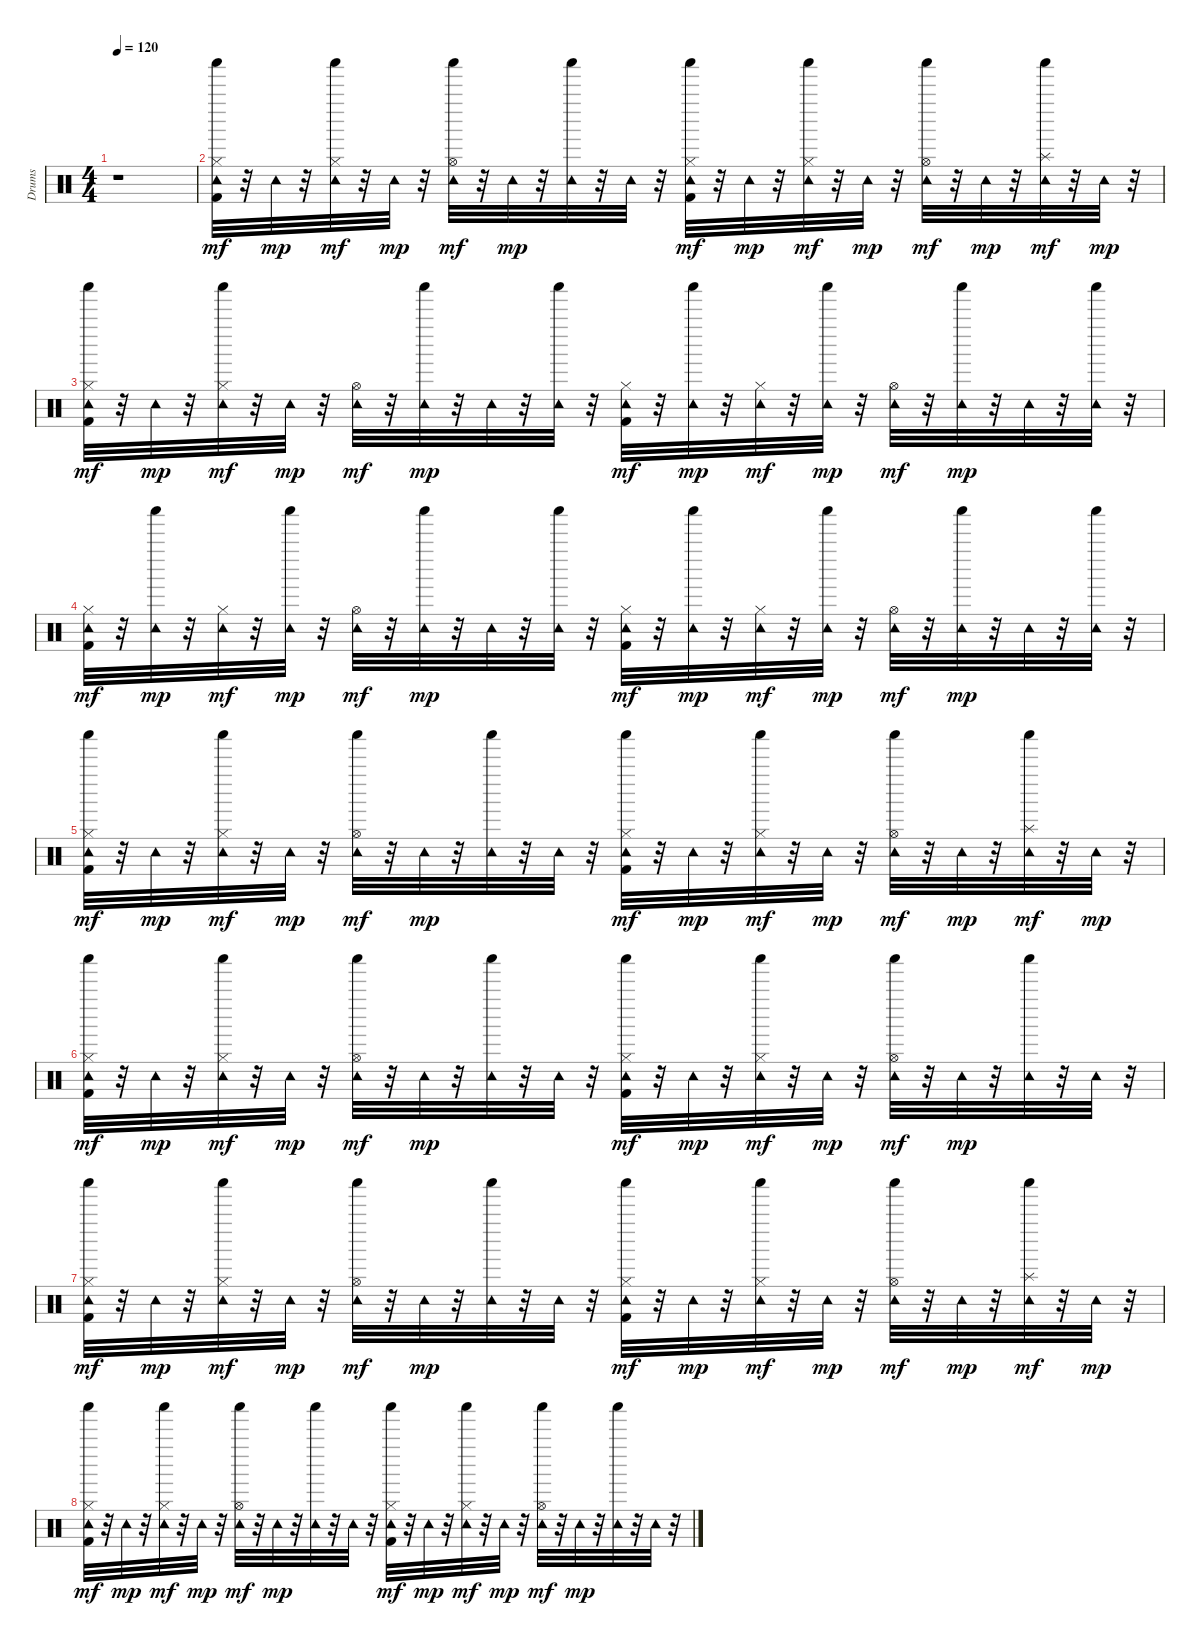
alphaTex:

\track ("Drums" "Drums") {instrument percussion}
\staff {score}
\articulation defaults
\ts (4 4)
\tempo 120
\clef neutral
\ks c
r.1{dy mp} |
("Kick (hit) 2" "Tambourine (hit)" "Shaker (hit)" "Hi-Hat (closed)").32{dy mf} r.32 "Tambourine (hit)".32{dy mp} r.32 ("Tambourine (hit)" "Shaker (hit)" "Hi-Hat (closed)").32{dy mf} r.32 "Tambourine (hit)".32{dy mp} r.32 ("Tambourine (hit)" "Shaker (hit)" "Hi-Hat (open)").32{dy mf} r.32 "Tambourine (hit)".32{dy mp} r.32 ("Tambourine (hit)" "Shaker (hit)").32 r.32 "Tambourine (hit)".32 r.32 ("Kick (hit) 2" "Tambourine (hit)" "Shaker (hit)" "Hi-Hat (closed)").32{dy mf} r.32 "Tambourine (hit)".32{dy mp} r.32 ("Tambourine (hit)" "Shaker (hit)" "Hi-Hat (closed)").32{dy mf} r.32 "Tambourine (hit)".32{dy mp} r.32 ("Tambourine (hit)" "Shaker (hit)" "Hi-Hat (open)").32{dy mf} r.32 "Tambourine (hit)".32{dy mp} r.32 ("Tambourine (hit)" "Shaker (hit)" "Splash (hit)").32{dy mf} r.32 "Tambourine (hit)".32{dy mp} r.32 |
("Kick (hit) 2" "Tambourine (hit)" "Shaker (hit)" "Hi-Hat (closed)").32{dy mf} r.32 "Tambourine (hit)".32{dy mp} r.32 ("Tambourine (hit)" "Shaker (hit)" "Hi-Hat (closed)").32{dy mf} r.32 "Tambourine (hit)".32{dy mp} r.32 ("Tambourine (hit)" "Hi-Hat (open)").32{dy mf} r.32 ("Tambourine (hit)" "Shaker (hit)").32{dy mp} r.32 "Tambourine (hit)".32 r.32 ("Tambourine (hit)" "Shaker (hit)").32 r.32 ("Kick (hit) 2" "Tambourine (hit)" "Hi-Hat (closed)").32{dy mf} r.32 ("Tambourine (hit)" "Shaker (hit)").32{dy mp} r.32 ("Tambourine (hit)" "Hi-Hat (closed)").32{dy mf} r.32 ("Tambourine (hit)" "Shaker (hit)").32{dy mp} r.32 ("Tambourine (hit)" "Hi-Hat (open)").32{dy mf} r.32 ("Tambourine (hit)" "Shaker (hit)").32{dy mp} r.32 "Tambourine (hit)".32 r.32 ("Tambourine (hit)" "Shaker (hit)").32 r.32 |
("Kick (hit) 2" "Tambourine (hit)" "Hi-Hat (closed)").32{dy mf} r.32 ("Tambourine (hit)" "Shaker (hit)").32{dy mp} r.32 ("Tambourine (hit)" "Hi-Hat (closed)").32{dy mf} r.32 ("Tambourine (hit)" "Shaker (hit)").32{dy mp} r.32 ("Tambourine (hit)" "Hi-Hat (open)").32{dy mf} r.32 ("Tambourine (hit)" "Shaker (hit)").32{dy mp} r.32 "Tambourine (hit)".32 r.32 ("Tambourine (hit)" "Shaker (hit)").32 r.32 ("Kick (hit) 2" "Tambourine (hit)" "Hi-Hat (closed)").32{dy mf} r.32 ("Tambourine (hit)" "Shaker (hit)").32{dy mp} r.32 ("Tambourine (hit)" "Hi-Hat (closed)").32{dy mf} r.32 ("Tambourine (hit)" "Shaker (hit)").32{dy mp} r.32 ("Tambourine (hit)" "Hi-Hat (open)").32{dy mf} r.32 ("Tambourine (hit)" "Shaker (hit)").32{dy mp} r.32 "Tambourine (hit)".32 r.32 ("Tambourine (hit)" "Shaker (hit)").32 r.32 |
("Kick (hit) 2" "Tambourine (hit)" "Shaker (hit)" "Hi-Hat (closed)").32{dy mf} r.32 "Tambourine (hit)".32{dy mp} r.32 ("Tambourine (hit)" "Shaker (hit)" "Hi-Hat (closed)").32{dy mf} r.32 "Tambourine (hit)".32{dy mp} r.32 ("Tambourine (hit)" "Shaker (hit)" "Hi-Hat (open)").32{dy mf} r.32 "Tambourine (hit)".32{dy mp} r.32 ("Tambourine (hit)" "Shaker (hit)").32 r.32 "Tambourine (hit)".32 r.32 ("Kick (hit) 2" "Tambourine (hit)" "Shaker (hit)" "Hi-Hat (closed)").32{dy mf} r.32 "Tambourine (hit)".32{dy mp} r.32 ("Tambourine (hit)" "Shaker (hit)" "Hi-Hat (closed)").32{dy mf} r.32 "Tambourine (hit)".32{dy mp} r.32 ("Tambourine (hit)" "Shaker (hit)" "Hi-Hat (open)").32{dy mf} r.32 "Tambourine (hit)".32{dy mp} r.32 ("Tambourine (hit)" "Shaker (hit)" "Splash (hit)").32{dy mf} r.32 "Tambourine (hit)".32{dy mp} r.32 |
("Kick (hit) 2" "Tambourine (hit)" "Shaker (hit)" "Hi-Hat (closed)").32{dy mf} r.32 "Tambourine (hit)".32{dy mp} r.32 ("Tambourine (hit)" "Shaker (hit)" "Hi-Hat (closed)").32{dy mf} r.32 "Tambourine (hit)".32{dy mp} r.32 ("Tambourine (hit)" "Shaker (hit)" "Hi-Hat (open)").32{dy mf} r.32 "Tambourine (hit)".32{dy mp} r.32 ("Tambourine (hit)" "Shaker (hit)").32 r.32 "Tambourine (hit)".32 r.32 ("Kick (hit) 2" "Tambourine (hit)" "Shaker (hit)" "Hi-Hat (closed)").32{dy mf} r.32 "Tambourine (hit)".32{dy mp} r.32 ("Tambourine (hit)" "Shaker (hit)" "Hi-Hat (closed)").32{dy mf} r.32 "Tambourine (hit)".32{dy mp} r.32 ("Tambourine (hit)" "Shaker (hit)" "Hi-Hat (open)").32{dy mf} r.32 "Tambourine (hit)".32{dy mp} r.32 ("Tambourine (hit)" "Shaker (hit)").32 r.32 "Tambourine (hit)".32 r.32 |
("Kick (hit) 2" "Tambourine (hit)" "Shaker (hit)" "Hi-Hat (closed)").32{dy mf} r.32 "Tambourine (hit)".32{dy mp} r.32 ("Tambourine (hit)" "Shaker (hit)" "Hi-Hat (closed)").32{dy mf} r.32 "Tambourine (hit)".32{dy mp} r.32 ("Tambourine (hit)" "Shaker (hit)" "Hi-Hat (open)").32{dy mf} r.32 "Tambourine (hit)".32{dy mp} r.32 ("Tambourine (hit)" "Shaker (hit)").32 r.32 "Tambourine (hit)".32 r.32 ("Kick (hit) 2" "Tambourine (hit)" "Shaker (hit)" "Hi-Hat (closed)").32{dy mf} r.32 "Tambourine (hit)".32{dy mp} r.32 ("Tambourine (hit)" "Shaker (hit)" "Hi-Hat (closed)").32{dy mf} r.32 "Tambourine (hit)".32{dy mp} r.32 ("Tambourine (hit)" "Shaker (hit)" "Hi-Hat (open)").32{dy mf} r.32 "Tambourine (hit)".32{dy mp} r.32 ("Tambourine (hit)" "Shaker (hit)" "Splash (hit)").32{dy mf} r.32 "Tambourine (hit)".32{dy mp} r.32 |
("Kick (hit) 2" "Tambourine (hit)" "Shaker (hit)" "Hi-Hat (closed)").32{dy mf} r.32 "Tambourine (hit)".32{dy mp} r.32 ("Tambourine (hit)" "Shaker (hit)" "Hi-Hat (closed)").32{dy mf} r.32 "Tambourine (hit)".32{dy mp} r.32 ("Tambourine (hit)" "Shaker (hit)" "Hi-Hat (open)").32{dy mf} r.32 "Tambourine (hit)".32{dy mp} r.32 ("Tambourine (hit)" "Shaker (hit)").32 r.32 "Tambourine (hit)".32 r.32 ("Kick (hit) 2" "Tambourine (hit)" "Shaker (hit)" "Hi-Hat (closed)").32{dy mf} r.32 "Tambourine (hit)".32{dy mp} r.32 ("Tambourine (hit)" "Shaker (hit)" "Hi-Hat (closed)").32{dy mf} r.32 "Tambourine (hit)".32{dy mp} r.32 ("Tambourine (hit)" "Shaker (hit)" "Hi-Hat (open)").32{dy mf} r.32 "Tambourine (hit)".32{dy mp} r.32 ("Tambourine (hit)" "Shaker (hit)").32 r.32 "Tambourine (hit)".32 r.32
